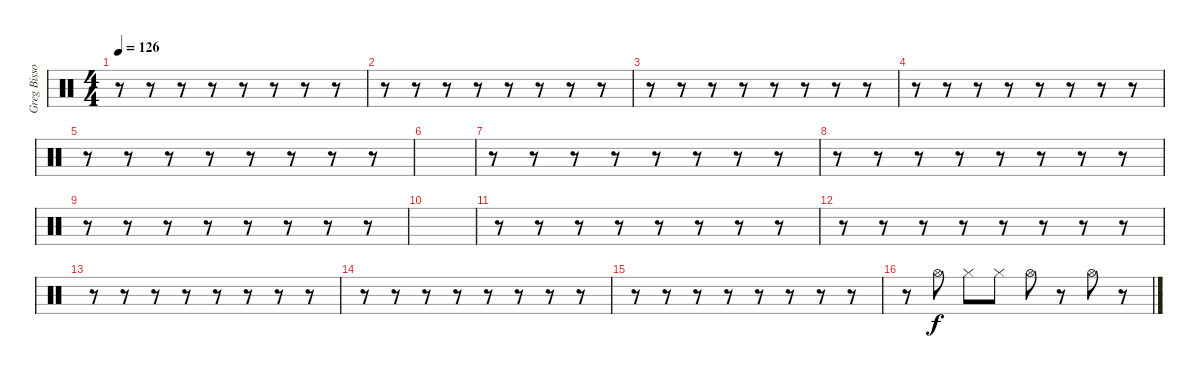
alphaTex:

\track ("Greg Bissonette - drums" "Greg Bisso") {instrument percussion}
\staff {score}
\articulation defaults
\ts (4 4)
\tempo 126
\clef neutral
\ks c
r.8{dy f} r.8 r.8 r.8 r.8 r.8 r.8 r.8 |
r.8 r.8 r.8 r.8 r.8 r.8 r.8 r.8 |
r.8 r.8 r.8 r.8 r.8 r.8 r.8 r.8 |
r.8 r.8 r.8 r.8 r.8 r.8 r.8 r.8 |
r.8 r.8 r.8 r.8 r.8 r.8 r.8 r.8 |
|
r.8 r.8 r.8 r.8 r.8 r.8 r.8 r.8 |
r.8 r.8 r.8 r.8 r.8 r.8 r.8 r.8 |
r.8 r.8 r.8 r.8 r.8 r.8 r.8 r.8 |
|
r.8 r.8 r.8 r.8 r.8 r.8 r.8 r.8 |
r.8 r.8 r.8 r.8 r.8 r.8 r.8 r.8 |
r.8 r.8 r.8 r.8 r.8 r.8 r.8 r.8 |
r.8 r.8 r.8 r.8 r.8 r.8 r.8 r.8 |
r.8 r.8 r.8 r.8 r.8 r.8 r.8 r.8 |
r.8 "Hi-Hat (open)".8 "Hi-Hat (closed)".8 "Hi-Hat (closed)".8 "Hi-Hat (open)".8 r.8 "Hi-Hat (open)".8 r.8
